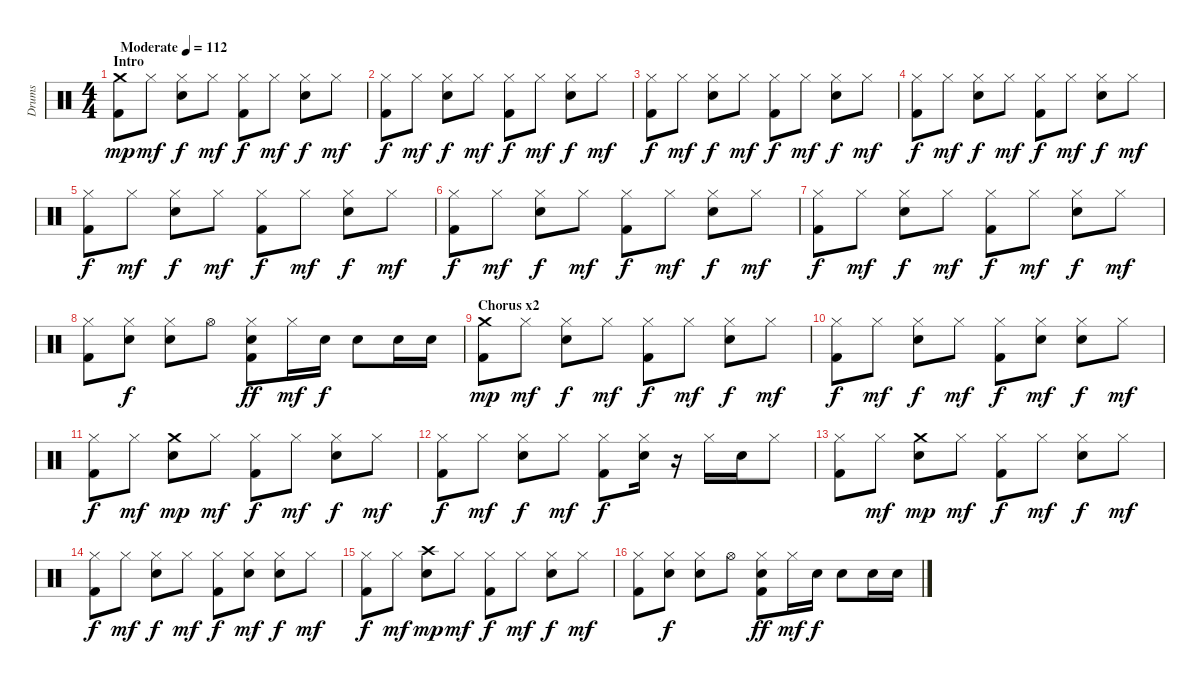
\track ("Drums" "Drums") {instrument percussion}
\staff {score}
\articulation defaults
\ts (4 4)
\section ("" "Intro")
\tempo (112 "Moderate")
\clef neutral
\ks c
("Crash medium (hit)" "Kick (hit) 2").8{dy mp} "Hi-Hat (closed)".8{dy mf} ("Hi-Hat (closed)" "Snare (hit) 2").8{dy f} "Hi-Hat (closed)".8{dy mf} ("Hi-Hat (closed)" "Kick (hit) 2").8{dy f} "Hi-Hat (closed)".8{dy mf} ("Hi-Hat (closed)" "Snare (hit) 2").8{dy f} "Hi-Hat (closed)".8{dy mf} |
("Hi-Hat (closed)" "Kick (hit) 2").8{dy f} "Hi-Hat (closed)".8{dy mf} ("Hi-Hat (closed)" "Snare (hit) 2").8{dy f} "Hi-Hat (closed)".8{dy mf} ("Hi-Hat (closed)" "Kick (hit) 2").8{dy f} "Hi-Hat (closed)".8{dy mf} ("Hi-Hat (closed)" "Snare (hit) 2").8{dy f} "Hi-Hat (closed)".8{dy mf} |
("Hi-Hat (closed)" "Kick (hit) 2").8{dy f} "Hi-Hat (closed)".8{dy mf} ("Hi-Hat (closed)" "Snare (hit) 2").8{dy f} "Hi-Hat (closed)".8{dy mf} ("Hi-Hat (closed)" "Kick (hit) 2").8{dy f} "Hi-Hat (closed)".8{dy mf} ("Hi-Hat (closed)" "Snare (hit) 2").8{dy f} "Hi-Hat (closed)".8{dy mf} |
("Hi-Hat (closed)" "Kick (hit) 2").8{dy f} "Hi-Hat (closed)".8{dy mf} ("Hi-Hat (closed)" "Snare (hit) 2").8{dy f} "Hi-Hat (closed)".8{dy mf} ("Hi-Hat (closed)" "Kick (hit) 2").8{dy f} "Hi-Hat (closed)".8{dy mf} ("Hi-Hat (closed)" "Snare (hit) 2").8{dy f} "Hi-Hat (closed)".8{dy mf} |
("Hi-Hat (closed)" "Kick (hit) 2").8{dy f} "Hi-Hat (closed)".8{dy mf} ("Hi-Hat (closed)" "Snare (hit) 2").8{dy f} "Hi-Hat (closed)".8{dy mf} ("Hi-Hat (closed)" "Kick (hit) 2").8{dy f} "Hi-Hat (closed)".8{dy mf} ("Hi-Hat (closed)" "Snare (hit) 2").8{dy f} "Hi-Hat (closed)".8{dy mf} |
("Hi-Hat (closed)" "Kick (hit) 2").8{dy f} "Hi-Hat (closed)".8{dy mf} ("Hi-Hat (closed)" "Snare (hit) 2").8{dy f} "Hi-Hat (closed)".8{dy mf} ("Hi-Hat (closed)" "Kick (hit) 2").8{dy f} "Hi-Hat (closed)".8{dy mf} ("Hi-Hat (closed)" "Snare (hit) 2").8{dy f} "Hi-Hat (closed)".8{dy mf} |
("Hi-Hat (closed)" "Kick (hit) 2").8{dy f} "Hi-Hat (closed)".8{dy mf} ("Hi-Hat (closed)" "Snare (hit) 2").8{dy f} "Hi-Hat (closed)".8{dy mf} ("Hi-Hat (closed)" "Kick (hit) 2").8{dy f} "Hi-Hat (closed)".8{dy mf} ("Hi-Hat (closed)" "Snare (hit) 2").8{dy f} "Hi-Hat (closed)".8{dy mf} |
("Hi-Hat (closed)" "Kick (hit) 2").8 ("Hi-Hat (closed)" "Snare (hit) 2").8{dy f} ("Hi-Hat (closed)" "Snare (hit) 2").8 "Hi-Hat (open)".8 ("Hi-Hat (closed)" "Snare (hit) 2" "Kick (hit) 2").8{dy ff} "Hi-Hat (closed)".16{dy mf} "Snare (hit) 2".16{dy f} "Snare (hit) 2".8 "Snare (hit) 2".16 "Snare (hit) 2".16 |
\section ("" "Chorus x2")
("Crash medium (hit)" "Kick (hit) 2").8{dy mp} "Hi-Hat (closed)".8{dy mf} ("Hi-Hat (closed)" "Snare (hit) 2").8{dy f} "Hi-Hat (closed)".8{dy mf} ("Hi-Hat (closed)" "Kick (hit) 2").8{dy f} "Hi-Hat (closed)".8{dy mf} ("Hi-Hat (closed)" "Snare (hit) 2").8{dy f} "Hi-Hat (closed)".8{dy mf} |
("Hi-Hat (closed)" "Kick (hit) 2").8{dy f} "Hi-Hat (closed)".8{dy mf} ("Hi-Hat (closed)" "Snare (hit) 2").8{dy f} "Hi-Hat (closed)".8{dy mf} ("Hi-Hat (closed)" "Kick (hit) 2").8{dy f} ("Hi-Hat (closed)" "Snare (hit) 2").8{dy mf} ("Hi-Hat (closed)" "Snare (hit) 2").8{dy f} "Hi-Hat (closed)".8{dy mf} |
("Hi-Hat (closed)" "Kick (hit) 2").8{dy f} "Hi-Hat (closed)".8{dy mf} ("Crash medium (hit)" "Snare (hit) 2").8{dy mp} "Hi-Hat (closed)".8{dy mf} ("Hi-Hat (closed)" "Kick (hit) 2").8{dy f} "Hi-Hat (closed)".8{dy mf} ("Hi-Hat (closed)" "Snare (hit) 2").8{dy f} "Hi-Hat (closed)".8{dy mf} |
("Hi-Hat (closed)" "Kick (hit) 2").8{dy f} "Hi-Hat (closed)".8{dy mf} ("Hi-Hat (closed)" "Snare (hit) 2").8{dy f} "Hi-Hat (closed)".8{dy mf} ("Hi-Hat (closed)" "Kick (hit) 2").8{dy f} ("Hi-Hat (closed)" "Snare (hit) 2").16 r.16 "Hi-Hat (closed)".16 "Snare (hit) 2".16 "Hi-Hat (closed)".8 |
("Hi-Hat (closed)" "Kick (hit) 2").8 "Hi-Hat (closed)".8{dy mf} ("Crash medium (hit)" "Snare (hit) 2").8{dy mp} "Hi-Hat (closed)".8{dy mf} ("Hi-Hat (closed)" "Kick (hit) 2").8{dy f} "Hi-Hat (closed)".8{dy mf} ("Hi-Hat (closed)" "Snare (hit) 2").8{dy f} "Hi-Hat (closed)".8{dy mf} |
("Hi-Hat (closed)" "Kick (hit) 2").8{dy f} "Hi-Hat (closed)".8{dy mf} ("Hi-Hat (closed)" "Snare (hit) 2").8{dy f} "Hi-Hat (closed)".8{dy mf} ("Hi-Hat (closed)" "Kick (hit) 2").8{dy f} ("Hi-Hat (closed)" "Snare (hit) 2").8{dy mf} ("Hi-Hat (closed)" "Snare (hit) 2").8{dy f} "Hi-Hat (closed)".8{dy mf} |
("Hi-Hat (closed)" "Kick (hit) 2").8{dy f} "Hi-Hat (closed)".8{dy mf} ("Crash high (hit)" "Snare (hit) 2").8{dy mp} "Hi-Hat (closed)".8{dy mf} ("Hi-Hat (closed)" "Kick (hit) 2").8{dy f} "Hi-Hat (closed)".8{dy mf} ("Hi-Hat (closed)" "Snare (hit) 2").8{dy f} "Hi-Hat (closed)".8{dy mf} |
("Hi-Hat (closed)" "Kick (hit) 2").8 ("Hi-Hat (closed)" "Snare (hit) 2").8{dy f} ("Hi-Hat (closed)" "Snare (hit) 2").8 "Hi-Hat (open)".8 ("Hi-Hat (closed)" "Snare (hit) 2" "Kick (hit) 2").8{dy ff} "Hi-Hat (closed)".16{dy mf} "Snare (hit) 2".16{dy f} "Snare (hit) 2".8 "Snare (hit) 2".16 "Snare (hit) 2".16
